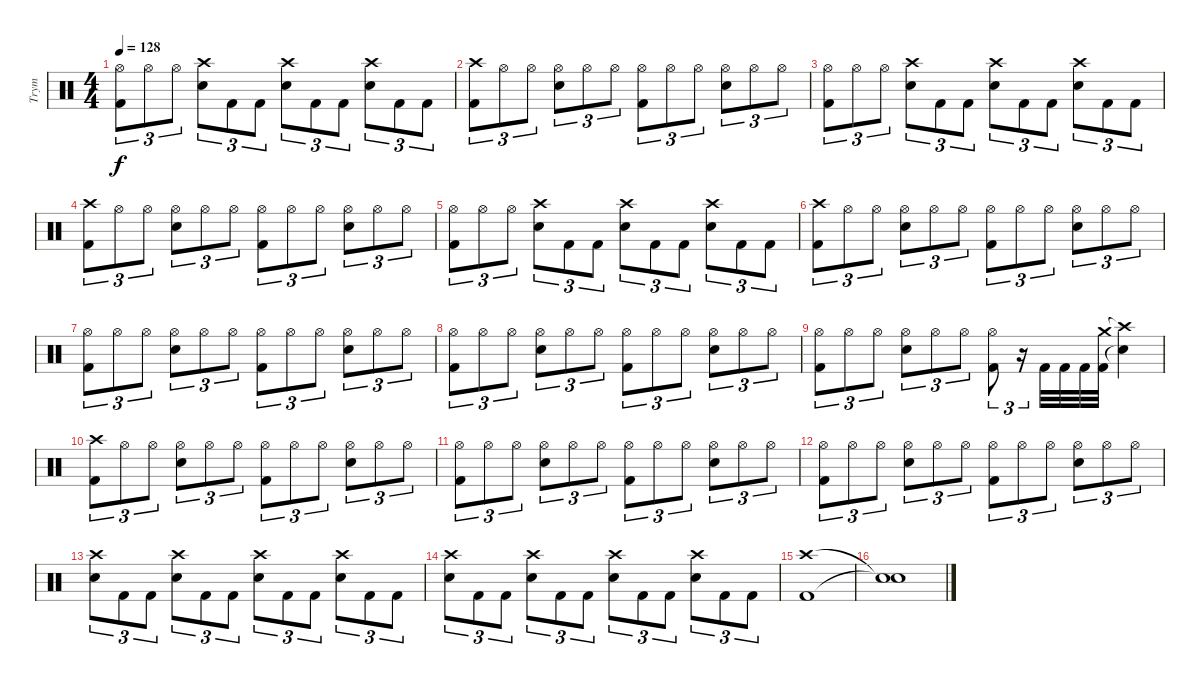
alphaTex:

\track ("Trym" "Trym") {instrument percussion}
\staff {score}
\articulation defaults
\ts (4 4)
\tempo 128
\clef neutral
\ks c
("Hi-Hat (open)" "Kick (hit) 2").8{tu (3 2) dy f} "Hi-Hat (open)".8{tu (3 2)} "Hi-Hat (open)".8{tu (3 2)} ("Crash high (hit)" "Electric Snare (hit)").8{tu (3 2)} "Kick (hit) 2".8{tu (3 2)} "Kick (hit) 2".8{tu (3 2)} ("Crash high (hit)" "Electric Snare (hit)").8{tu (3 2)} "Kick (hit) 2".8{tu (3 2)} "Kick (hit) 2".8{tu (3 2)} ("Crash high (hit)" "Electric Snare (hit)").8{tu (3 2)} "Kick (hit) 2".8{tu (3 2)} "Kick (hit) 2".8{tu (3 2)} |
("Crash high (hit)" "Kick (hit) 2").8{tu (3 2)} "Hi-Hat (open)".8{tu (3 2)} "Hi-Hat (open)".8{tu (3 2)} ("Hi-Hat (open)" "Electric Snare (hit)").8{tu (3 2)} "Hi-Hat (open)".8{tu (3 2)} "Hi-Hat (open)".8{tu (3 2)} ("Hi-Hat (open)" "Kick (hit) 2").8{tu (3 2)} "Hi-Hat (open)".8{tu (3 2)} "Hi-Hat (open)".8{tu (3 2)} ("Hi-Hat (open)" "Electric Snare (hit)").8{tu (3 2)} "Hi-Hat (open)".8{tu (3 2)} "Hi-Hat (open)".8{tu (3 2)} |
("Hi-Hat (open)" "Kick (hit) 2").8{tu (3 2)} "Hi-Hat (open)".8{tu (3 2)} "Hi-Hat (open)".8{tu (3 2)} ("Crash high (hit)" "Electric Snare (hit)").8{tu (3 2)} "Kick (hit) 2".8{tu (3 2)} "Kick (hit) 2".8{tu (3 2)} ("Crash high (hit)" "Electric Snare (hit)").8{tu (3 2)} "Kick (hit) 2".8{tu (3 2)} "Kick (hit) 2".8{tu (3 2)} ("Crash high (hit)" "Electric Snare (hit)").8{tu (3 2)} "Kick (hit) 2".8{tu (3 2)} "Kick (hit) 2".8{tu (3 2)} |
("Crash high (hit)" "Kick (hit) 2").8{tu (3 2)} "Hi-Hat (open)".8{tu (3 2)} "Hi-Hat (open)".8{tu (3 2)} ("Hi-Hat (open)" "Electric Snare (hit)").8{tu (3 2)} "Hi-Hat (open)".8{tu (3 2)} "Hi-Hat (open)".8{tu (3 2)} ("Hi-Hat (open)" "Kick (hit) 2").8{tu (3 2)} "Hi-Hat (open)".8{tu (3 2)} "Hi-Hat (open)".8{tu (3 2)} ("Hi-Hat (open)" "Electric Snare (hit)").8{tu (3 2)} "Hi-Hat (open)".8{tu (3 2)} "Hi-Hat (open)".8{tu (3 2)} |
("Hi-Hat (open)" "Kick (hit) 2").8{tu (3 2)} "Hi-Hat (open)".8{tu (3 2)} "Hi-Hat (open)".8{tu (3 2)} ("Crash high (hit)" "Electric Snare (hit)").8{tu (3 2)} "Kick (hit) 2".8{tu (3 2)} "Kick (hit) 2".8{tu (3 2)} ("Crash high (hit)" "Electric Snare (hit)").8{tu (3 2)} "Kick (hit) 2".8{tu (3 2)} "Kick (hit) 2".8{tu (3 2)} ("Crash high (hit)" "Electric Snare (hit)").8{tu (3 2)} "Kick (hit) 2".8{tu (3 2)} "Kick (hit) 2".8{tu (3 2)} |
("Crash high (hit)" "Kick (hit) 2").8{tu (3 2)} "Hi-Hat (open)".8{tu (3 2)} "Hi-Hat (open)".8{tu (3 2)} ("Hi-Hat (open)" "Electric Snare (hit)").8{tu (3 2)} "Hi-Hat (open)".8{tu (3 2)} "Hi-Hat (open)".8{tu (3 2)} ("Hi-Hat (open)" "Kick (hit) 2").8{tu (3 2)} "Hi-Hat (open)".8{tu (3 2)} "Hi-Hat (open)".8{tu (3 2)} ("Hi-Hat (open)" "Electric Snare (hit)").8{tu (3 2)} "Hi-Hat (open)".8{tu (3 2)} "Hi-Hat (open)".8{tu (3 2)} |
("Hi-Hat (open)" "Kick (hit) 2").8{tu (3 2)} "Hi-Hat (open)".8{tu (3 2)} "Hi-Hat (open)".8{tu (3 2)} ("Hi-Hat (open)" "Electric Snare (hit)").8{tu (3 2)} "Hi-Hat (open)".8{tu (3 2)} "Hi-Hat (open)".8{tu (3 2)} ("Hi-Hat (open)" "Kick (hit) 2").8{tu (3 2)} "Hi-Hat (open)".8{tu (3 2)} "Hi-Hat (open)".8{tu (3 2)} ("Hi-Hat (open)" "Electric Snare (hit)").8{tu (3 2)} "Hi-Hat (open)".8{tu (3 2)} "Hi-Hat (open)".8{tu (3 2)} |
("Hi-Hat (open)" "Kick (hit) 2").8{tu (3 2)} "Hi-Hat (open)".8{tu (3 2)} "Hi-Hat (open)".8{tu (3 2)} ("Hi-Hat (open)" "Electric Snare (hit)").8{tu (3 2)} "Hi-Hat (open)".8{tu (3 2)} "Hi-Hat (open)".8{tu (3 2)} ("Hi-Hat (open)" "Kick (hit) 2").8{tu (3 2)} "Hi-Hat (open)".8{tu (3 2)} "Hi-Hat (open)".8{tu (3 2)} ("Hi-Hat (open)" "Electric Snare (hit)").8{tu (3 2)} "Hi-Hat (open)".8{tu (3 2)} "Hi-Hat (open)".8{tu (3 2)} |
("Hi-Hat (open)" "Kick (hit) 2").8{tu (3 2)} "Hi-Hat (open)".8{tu (3 2)} "Hi-Hat (open)".8{tu (3 2)} ("Hi-Hat (open)" "Electric Snare (hit)").8{tu (3 2)} "Hi-Hat (open)".8{tu (3 2)} "Hi-Hat (open)".8{tu (3 2)} ("Hi-Hat (open)" "Kick (hit) 2").8{tu (3 2)} r.16{tu (3 2)} "Kick (hit) 2".32 "Kick (hit) 2".32 "Kick (hit) 2".32 ("Crash medium (hit)" "Kick (hit) 2").32 ("Crash high (hit)"{t} "Snare (hit)"{t}).4 |
("Crash high (hit)" "Kick (hit) 2").8{tu (3 2)} "Hi-Hat (open)".8{tu (3 2)} "Hi-Hat (open)".8{tu (3 2)} ("Hi-Hat (open)" "Electric Snare (hit)").8{tu (3 2)} "Hi-Hat (open)".8{tu (3 2)} "Hi-Hat (open)".8{tu (3 2)} ("Hi-Hat (open)" "Kick (hit) 2").8{tu (3 2)} "Hi-Hat (open)".8{tu (3 2)} "Hi-Hat (open)".8{tu (3 2)} ("Hi-Hat (open)" "Electric Snare (hit)").8{tu (3 2)} "Hi-Hat (open)".8{tu (3 2)} "Hi-Hat (open)".8{tu (3 2)} |
("Hi-Hat (open)" "Kick (hit) 2").8{tu (3 2)} "Hi-Hat (open)".8{tu (3 2)} "Hi-Hat (open)".8{tu (3 2)} ("Hi-Hat (open)" "Electric Snare (hit)").8{tu (3 2)} "Hi-Hat (open)".8{tu (3 2)} "Hi-Hat (open)".8{tu (3 2)} ("Hi-Hat (open)" "Kick (hit) 2").8{tu (3 2)} "Hi-Hat (open)".8{tu (3 2)} "Hi-Hat (open)".8{tu (3 2)} ("Hi-Hat (open)" "Electric Snare (hit)").8{tu (3 2)} "Hi-Hat (open)".8{tu (3 2)} "Hi-Hat (open)".8{tu (3 2)} |
("Hi-Hat (open)" "Kick (hit) 2").8{tu (3 2)} "Hi-Hat (open)".8{tu (3 2)} "Hi-Hat (open)".8{tu (3 2)} ("Hi-Hat (open)" "Electric Snare (hit)").8{tu (3 2)} "Hi-Hat (open)".8{tu (3 2)} "Hi-Hat (open)".8{tu (3 2)} ("Hi-Hat (open)" "Kick (hit) 2").8{tu (3 2)} "Hi-Hat (open)".8{tu (3 2)} "Hi-Hat (open)".8{tu (3 2)} ("Hi-Hat (open)" "Electric Snare (hit)").8{tu (3 2)} "Hi-Hat (open)".8{tu (3 2)} "Hi-Hat (open)".8{tu (3 2)} |
("Crash high (hit)" "Electric Snare (hit)").8{tu (3 2)} "Kick (hit) 2".8{tu (3 2)} "Kick (hit) 2".8{tu (3 2)} ("Crash high (hit)" "Electric Snare (hit)").8{tu (3 2)} "Kick (hit) 2".8{tu (3 2)} "Kick (hit) 2".8{tu (3 2)} ("Crash high (hit)" "Electric Snare (hit)").8{tu (3 2)} "Kick (hit) 2".8{tu (3 2)} "Kick (hit) 2".8{tu (3 2)} ("Crash high (hit)" "Electric Snare (hit)").8{tu (3 2)} "Kick (hit) 2".8{tu (3 2)} "Kick (hit) 2".8{tu (3 2)} |
("Crash high (hit)" "Electric Snare (hit)").8{tu (3 2)} "Kick (hit) 2".8{tu (3 2)} "Kick (hit) 2".8{tu (3 2)} ("Crash high (hit)" "Electric Snare (hit)").8{tu (3 2)} "Kick (hit) 2".8{tu (3 2)} "Kick (hit) 2".8{tu (3 2)} ("Crash high (hit)" "Electric Snare (hit)").8{tu (3 2)} "Kick (hit) 2".8{tu (3 2)} "Kick (hit) 2".8{tu (3 2)} ("Crash high (hit)" "Electric Snare (hit)").8{tu (3 2)} "Kick (hit) 2".8{tu (3 2)} "Kick (hit) 2".8{tu (3 2)} |
("Crash high (hit)" "Kick (hit) 2").1 |
("Snare (hit)"{t} "Snare (hit)"{t}).1
